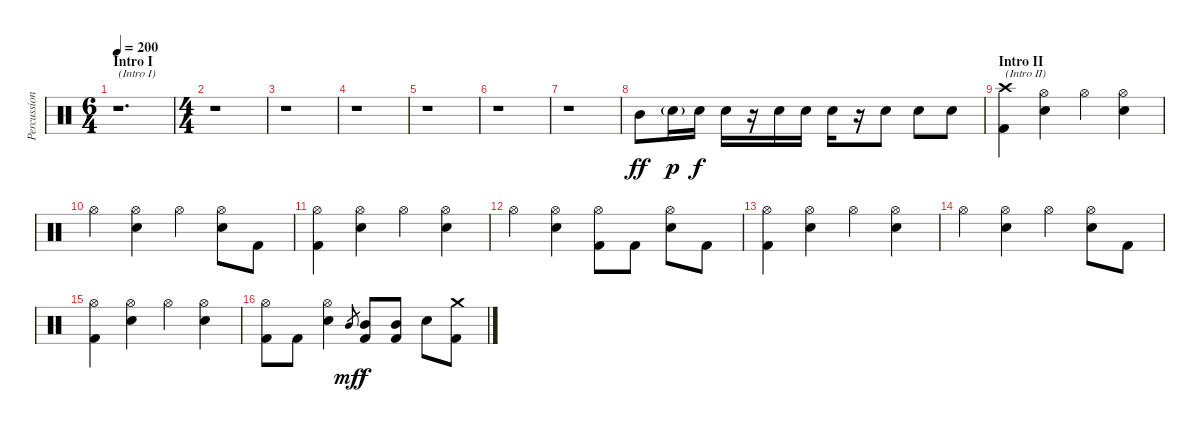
\track ("Percussion" "Percussion") {instrument percussion}
\staff {score}
\articulation defaults
\ts (6 4)
\section ("" "Intro I")
\tempo 200
\clef neutral
\ks c
r.1{d txt "(Intro I)" dy ff} |
\ts (4 4)
r.1 |
r.1 |
r.1 |
r.1 |
r.1 |
r.1 |
"Mid Tom (hit)".8 "Electric Snare (hit)"{g}.16{dy p} "Electric Snare (hit)".16{dy f} "Electric Snare (hit)".16 r.16 "Electric Snare (hit)".16 "Electric Snare (hit)".16 "Electric Snare (hit)".16 r.16 "Electric Snare (hit)".8 "Electric Snare (hit)".8 "Electric Snare (hit)".8 |
\section ("" "Intro II")
("Crash high (hit)" "Kick (hit) 2").4{txt "(Intro II)"} ("Hi-Hat (open)" "Electric Snare (hit)").4 "Hi-Hat (open)".4 ("Hi-Hat (open)" "Electric Snare (hit)").4 |
"Hi-Hat (open)".4 ("Hi-Hat (open)" "Electric Snare (hit)").4 "Hi-Hat (open)".4 ("Hi-Hat (open)" "Electric Snare (hit)").8 "Kick (hit) 2".8 |
("Hi-Hat (open)" "Kick (hit) 2").4 ("Hi-Hat (open)" "Electric Snare (hit)").4 "Hi-Hat (open)".4 ("Hi-Hat (open)" "Electric Snare (hit)").4 |
"Hi-Hat (open)".4 ("Hi-Hat (open)" "Electric Snare (hit)").4 ("Hi-Hat (open)" "Kick (hit) 2").8 "Kick (hit) 2".8 ("Hi-Hat (open)" "Electric Snare (hit)").8 "Kick (hit) 2".8 |
("Hi-Hat (open)" "Kick (hit) 2").4 ("Hi-Hat (open)" "Electric Snare (hit)").4 "Hi-Hat (open)".4 ("Hi-Hat (open)" "Electric Snare (hit)").4 |
"Hi-Hat (open)".4 ("Hi-Hat (open)" "Electric Snare (hit)").4 "Hi-Hat (open)".4 ("Hi-Hat (open)" "Electric Snare (hit)").8 "Kick (hit) 2".8 |
("Hi-Hat (open)" "Kick (hit) 2").4 ("Hi-Hat (open)" "Electric Snare (hit)").4 "Hi-Hat (open)".4 ("Hi-Hat (open)" "Electric Snare (hit)").4 |
("Hi-Hat (open)" "Kick (hit) 2").8 "Kick (hit) 2".8 ("Hi-Hat (open)" "Electric Snare (hit)").4 "Mid Tom (hit)".8{gr dy mf} ("Mid Tom (hit)" "Kick (hit) 2").8{dy f} ("Mid Tom (hit)" "Kick (hit) 2").8 "Electric Snare (hit)".8 ("Crash medium (hit)" "Kick (hit) 2").8
